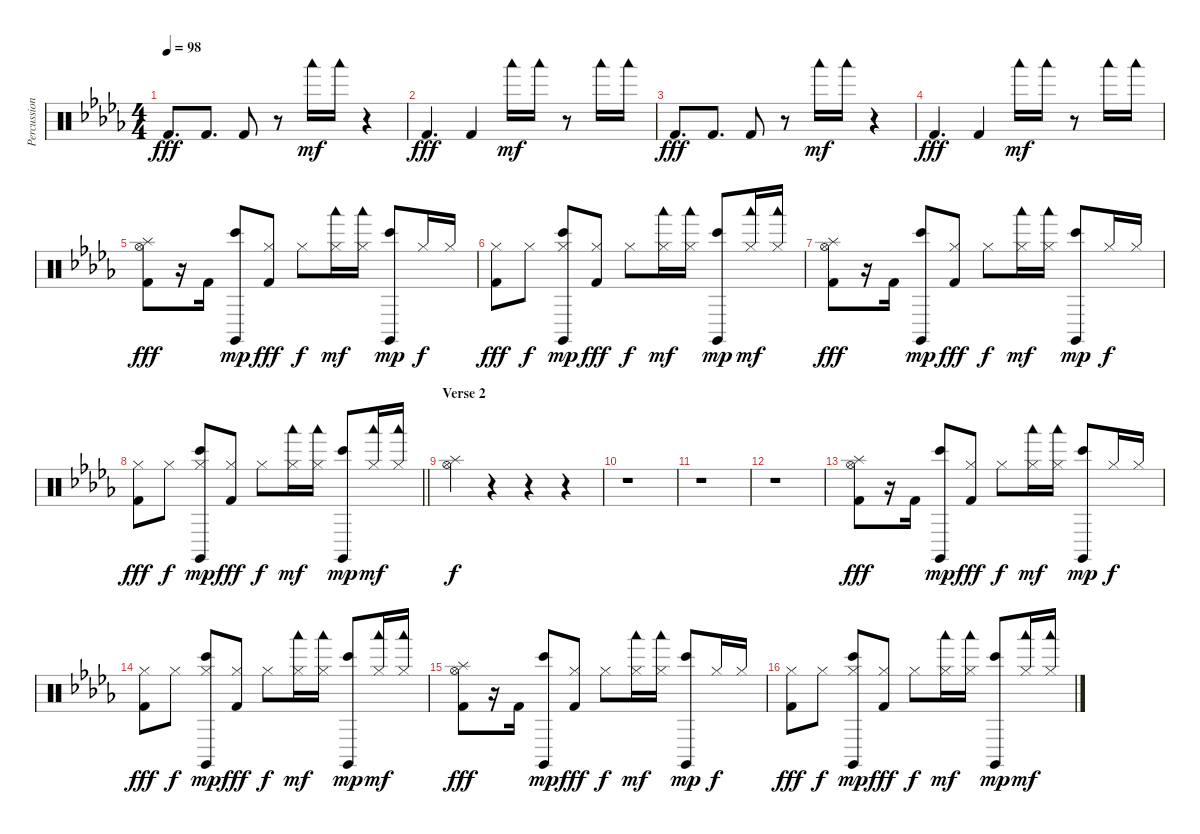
\track ("Percussion" "Percussion") {instrument percussion}
\staff {score}
\articulation defaults
\ts (4 4)
\tempo 98
\clef neutral
\ks db "Kick (hit) 2".8{d dy fff} "Kick (hit) 2".8{d} "Kick (hit) 2".8
r.8 "Woodblock low (hit)".16{dy mf balance 3} "Woodblock low (hit)".16{balance 13} r.4 |
"Kick (hit) 2".4{d dy fff balance 8} "Kick (hit) 2".4 "Woodblock low (hit)".16{dy mf balance 3} "Woodblock low (hit)".16{balance 13} r.8 "Woodblock low (hit)".16{balance 3} "Woodblock low (hit)".16{balance 13} |
"Kick (hit) 2".8{d dy fff balance 8} "Kick (hit) 2".8{d} "Kick (hit) 2".8 r.8 "Woodblock low (hit)".16{dy mf balance 3} "Woodblock low (hit)".16{balance 13} r.4 |
"Kick (hit) 2".4{d dy fff balance 8} "Kick (hit) 2".4 "Woodblock low (hit)".16{dy mf balance 3} "Woodblock low (hit)".16{balance 13} r.8 "Woodblock low (hit)".16{balance 3} "Woodblock low (hit)".16{balance 13} |
("Splash (hit)" "Hi-Hat (open)" "Kick (hit) 2").8{dy fff balance 8} r.16 "Kick (hit) 2".16 ("Claves (hit)" "Bongo High (hit)").8{dy mp} ("Hi-Hat (closed)" "Kick (hit) 2").8{dy fff} "Hi-Hat (closed)".8{dy f} ("Hi-Hat (closed)" "Woodblock low (hit)").16{dy mf} ("Hi-Hat (closed)" "Woodblock low (hit)").16 ("Claves (hit)" "Bongo High (hit)").8{dy mp} "Hi-Hat (closed)".16{dy f} "Hi-Hat (closed)".16 |
("Hi-Hat (closed)" "Kick (hit) 2").8{dy fff} "Hi-Hat (closed)".8{dy f} ("Hi-Hat (closed)" "Claves (hit)" "Bongo High (hit)").8{dy mp} ("Hi-Hat (closed)" "Kick (hit) 2").8{dy fff} "Hi-Hat (closed)".8{dy f} ("Hi-Hat (closed)" "Woodblock low (hit)").16{dy mf} ("Hi-Hat (closed)" "Woodblock low (hit)").16 ("Claves (hit)" "Bongo High (hit)").8{dy mp} ("Hi-Hat (closed)" "Woodblock low (hit)").16{dy mf} ("Hi-Hat (closed)" "Woodblock low (hit)").16 |
("Splash (hit)" "Hi-Hat (open)" "Kick (hit) 2").8{dy fff balance 8} r.16 "Kick (hit) 2".16 ("Claves (hit)" "Bongo High (hit)").8{dy mp} ("Hi-Hat (closed)" "Kick (hit) 2").8{dy fff} "Hi-Hat (closed)".8{dy f} ("Hi-Hat (closed)" "Woodblock low (hit)").16{dy mf} ("Hi-Hat (closed)" "Woodblock low (hit)").16 ("Claves (hit)" "Bongo High (hit)").8{dy mp} "Hi-Hat (closed)".16{dy f} "Hi-Hat (closed)".16 |
\barLineRight lightlight
("Hi-Hat (closed)" "Kick (hit) 2").8{dy fff} "Hi-Hat (closed)".8{dy f} ("Hi-Hat (closed)" "Claves (hit)" "Bongo High (hit)").8{dy mp} ("Hi-Hat (closed)" "Kick (hit) 2").8{dy fff} "Hi-Hat (closed)".8{dy f} ("Hi-Hat (closed)" "Woodblock low (hit)").16{dy mf} ("Hi-Hat (closed)" "Woodblock low (hit)").16 ("Claves (hit)" "Bongo High (hit)").8{dy mp} ("Hi-Hat (closed)" "Woodblock low (hit)").16{dy mf} ("Hi-Hat (closed)" "Woodblock low (hit)").16 |
\section ("" "Verse 2")
("Splash (hit)" "Hi-Hat (open)").4{dy f} r.4 r.4 r.4 |
r.1 |
r.1 |
r.1 |
("Splash (hit)" "Hi-Hat (open)" "Kick (hit) 2").8{dy fff} r.16 "Kick (hit) 2".16 ("Claves (hit)" "Bongo High (hit)").8{dy mp} ("Hi-Hat (closed)" "Kick (hit) 2").8{dy fff} "Hi-Hat (closed)".8{dy f} ("Hi-Hat (closed)" "Woodblock low (hit)").16{dy mf} ("Hi-Hat (closed)" "Woodblock low (hit)").16 ("Claves (hit)" "Bongo High (hit)").8{dy mp} "Hi-Hat (closed)".16{dy f} "Hi-Hat (closed)".16 |
("Hi-Hat (closed)" "Kick (hit) 2").8{dy fff} "Hi-Hat (closed)".8{dy f} ("Hi-Hat (closed)" "Claves (hit)" "Bongo High (hit)").8{dy mp} ("Hi-Hat (closed)" "Kick (hit) 2").8{dy fff} "Hi-Hat (closed)".8{dy f} ("Hi-Hat (closed)" "Woodblock low (hit)").16{dy mf} ("Hi-Hat (closed)" "Woodblock low (hit)").16 ("Claves (hit)" "Bongo High (hit)").8{dy mp} ("Hi-Hat (closed)" "Woodblock low (hit)").16{dy mf} ("Hi-Hat (closed)" "Woodblock low (hit)").16 |
("Splash (hit)" "Hi-Hat (open)" "Kick (hit) 2").8{dy fff} r.16 "Kick (hit) 2".16 ("Claves (hit)" "Bongo High (hit)").8{dy mp} ("Hi-Hat (closed)" "Kick (hit) 2").8{dy fff} "Hi-Hat (closed)".8{dy f} ("Hi-Hat (closed)" "Woodblock low (hit)").16{dy mf} ("Hi-Hat (closed)" "Woodblock low (hit)").16 ("Claves (hit)" "Bongo High (hit)").8{dy mp} "Hi-Hat (closed)".16{dy f} "Hi-Hat (closed)".16 |
("Hi-Hat (closed)" "Kick (hit) 2").8{dy fff} "Hi-Hat (closed)".8{dy f} ("Hi-Hat (closed)" "Claves (hit)" "Bongo High (hit)").8{dy mp} ("Hi-Hat (closed)" "Kick (hit) 2").8{dy fff} "Hi-Hat (closed)".8{dy f} ("Hi-Hat (closed)" "Woodblock low (hit)").16{dy mf} ("Hi-Hat (closed)" "Woodblock low (hit)").16 ("Claves (hit)" "Bongo High (hit)").8{dy mp} ("Hi-Hat (closed)" "Woodblock low (hit)").16{dy mf} ("Hi-Hat (closed)" "Woodblock low (hit)").16
